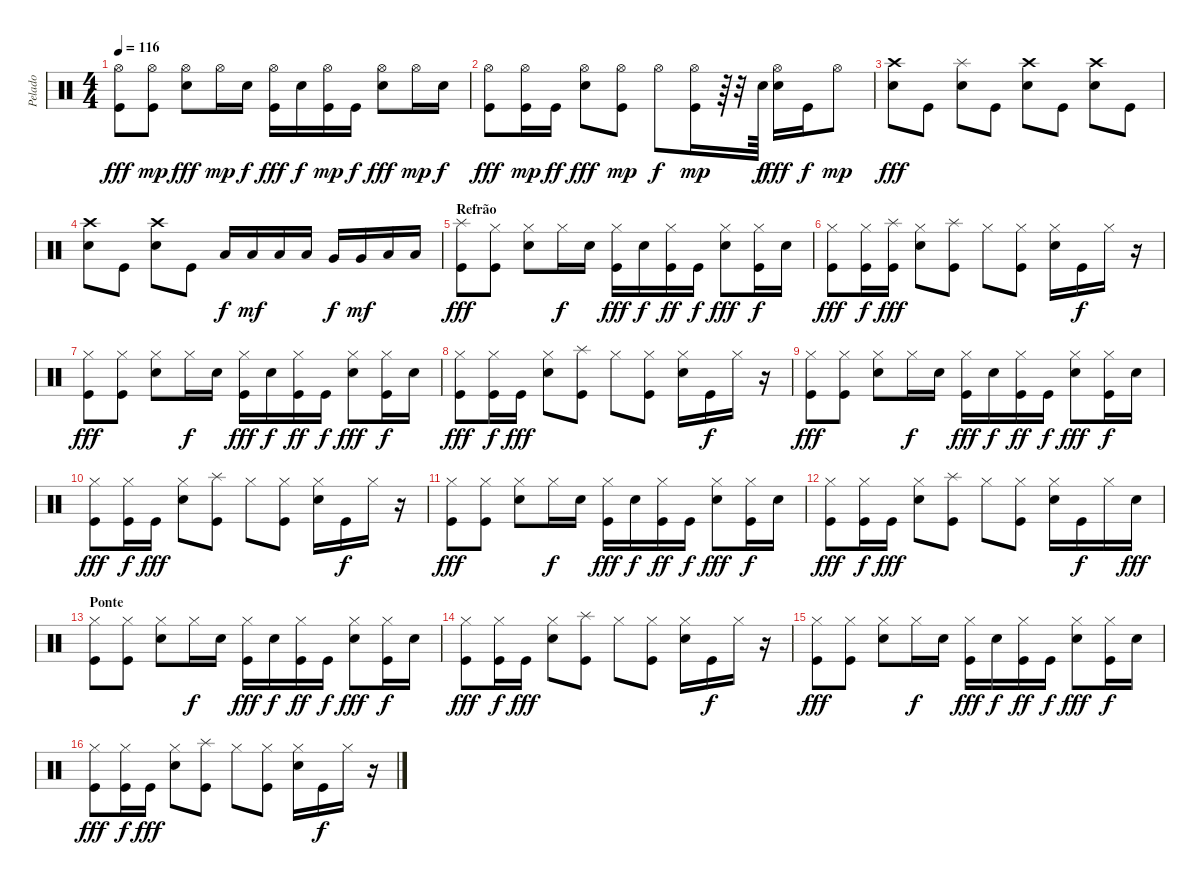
\track ("Pelado" "Pelado") {instrument percussion}
\staff {score}
\articulation defaults
\ts (4 4)
\tempo 116
\clef neutral
\ks c
("Kick (hit)" "Hi-Hat (open)").8{dy fff} ("Kick (hit)" "Hi-Hat (open)").8{dy mp} ("Electric Snare (hit)" "Hi-Hat (open)").8{dy fff} "Hi-Hat (open)".16{dy mp} "Electric Snare (hit)".16{dy f} ("Kick (hit)" "Hi-Hat (open)").16{dy fff} "Electric Snare (hit)".16{dy f} ("Kick (hit)" "Hi-Hat (open)").16{dy mp} "Kick (hit)".16{dy f} ("Electric Snare (hit)" "Hi-Hat (open)").8{dy fff} "Hi-Hat (open)".16{dy mp} "Electric Snare (hit)".16{dy f} |
("Kick (hit)" "Hi-Hat (open)").8{dy fff} ("Kick (hit)" "Hi-Hat (open)").16{dy mp} "Kick (hit)".16{dy ff} ("Electric Snare (hit)" "Hi-Hat (open)").8{dy fff} ("Kick (hit)" "Hi-Hat (open)").8{dy mp} "Hi-Hat (open)".8{dy f} ("Kick (hit)" "Hi-Hat (open)").16{dy mp} r.64 r.32 "Electric Snare (hit)".64{dy f} ("Electric Snare (hit)" "Hi-Hat (open)").16{dy fff} "Kick (hit)".16{dy f} "Hi-Hat (open)".8{dy mp} |
("Electric Snare (hit)" "Crash high (hit)").8{dy fff} "Kick (hit)".8 ("Electric Snare (hit)" "Splash (hit)").8 "Kick (hit)".8 ("Electric Snare (hit)" "Crash high (hit)").8 "Kick (hit)".8 ("Electric Snare (hit)" "Crash high (hit)").8 "Kick (hit)".8 |
("Electric Snare (hit)" "Crash high (hit)").8 "Kick (hit)".8 ("Electric Snare (hit)" "Crash high (hit)").8 "Kick (hit)".8 "Low Tom (hit)".16{dy f} "Low Tom (hit)".16{dy mf} "Low Tom (hit)".16 "Low Tom (hit)".16 "Very Low Tom (hit)".16{dy f} "Very Low Tom (hit)".16{dy mf} "Low Floor Tom (hit)".16 "Low Floor Tom (hit)".16 |
\section ("" "Refrão")
("Kick (hit)" "Splash (hit)").8{dy fff} ("Kick (hit)" "Hi-Hat (closed)").8 ("Electric Snare (hit)" "Hi-Hat (closed)").8 "Hi-Hat (closed)".16{dy f} "Electric Snare (hit)".16 ("Kick (hit)" "Hi-Hat (closed)").16{dy fff} "Electric Snare (hit)".16{dy f} ("Kick (hit)" "Hi-Hat (closed)").16{dy ff} "Kick (hit)".16{dy f} ("Electric Snare (hit)" "Hi-Hat (closed)").8{dy fff} ("Kick (hit)" "Hi-Hat (closed)").16{dy f} "Electric Snare (hit)".16 |
("Kick (hit)" "Hi-Hat (closed)").8{dy fff} ("Kick (hit)" "Hi-Hat (closed)").16{dy f} ("Kick (hit)" "Splash (hit)").16{dy fff} ("Electric Snare (hit)" "Hi-Hat (closed)").8 ("Kick (hit)" "Splash (hit)").8 "Hi-Hat (closed)".8 ("Kick (hit)" "Hi-Hat (closed)").8 ("Electric Snare (hit)" "Hi-Hat (closed)").16 "Kick (hit)".16{dy f} "Hi-Hat (closed)".16 r.16 |
("Kick (hit)" "Hi-Hat (closed)").8{dy fff} ("Kick (hit)" "Hi-Hat (closed)").8 ("Electric Snare (hit)" "Hi-Hat (closed)").8 "Hi-Hat (closed)".16{dy f} "Electric Snare (hit)".16 ("Kick (hit)" "Hi-Hat (closed)").16{dy fff} "Electric Snare (hit)".16{dy f} ("Kick (hit)" "Hi-Hat (closed)").16{dy ff} "Kick (hit)".16{dy f} ("Electric Snare (hit)" "Hi-Hat (closed)").8{dy fff} ("Kick (hit)" "Hi-Hat (closed)").16{dy f} "Electric Snare (hit)".16 |
("Kick (hit)" "Hi-Hat (closed)").8{dy fff} ("Kick (hit)" "Hi-Hat (closed)").16{dy f} "Kick (hit)".16{dy fff} ("Electric Snare (hit)" "Hi-Hat (closed)").8 ("Kick (hit)" "Splash (hit)").8 "Hi-Hat (closed)".8 ("Kick (hit)" "Hi-Hat (closed)").8 ("Electric Snare (hit)" "Hi-Hat (closed)").16 "Kick (hit)".16{dy f} "Hi-Hat (closed)".16 r.16 |
("Kick (hit)" "Hi-Hat (closed)").8{dy fff} ("Kick (hit)" "Hi-Hat (closed)").8 ("Electric Snare (hit)" "Hi-Hat (closed)").8 "Hi-Hat (closed)".16{dy f} "Electric Snare (hit)".16 ("Kick (hit)" "Hi-Hat (closed)").16{dy fff} "Electric Snare (hit)".16{dy f} ("Kick (hit)" "Hi-Hat (closed)").16{dy ff} "Kick (hit)".16{dy f} ("Electric Snare (hit)" "Hi-Hat (closed)").8{dy fff} ("Kick (hit)" "Hi-Hat (closed)").16{dy f} "Electric Snare (hit)".16 |
("Kick (hit)" "Hi-Hat (closed)").8{dy fff} ("Kick (hit)" "Hi-Hat (closed)").16{dy f} "Kick (hit)".16{dy fff} ("Electric Snare (hit)" "Hi-Hat (closed)").8 ("Kick (hit)" "Splash (hit)").8 "Hi-Hat (closed)".8 ("Kick (hit)" "Hi-Hat (closed)").8 ("Electric Snare (hit)" "Hi-Hat (closed)").16 "Kick (hit)".16{dy f} "Hi-Hat (closed)".16 r.16 |
("Kick (hit)" "Hi-Hat (closed)").8{dy fff} ("Kick (hit)" "Hi-Hat (closed)").8 ("Electric Snare (hit)" "Hi-Hat (closed)").8 "Hi-Hat (closed)".16{dy f} "Electric Snare (hit)".16 ("Kick (hit)" "Hi-Hat (closed)").16{dy fff} "Electric Snare (hit)".16{dy f} ("Kick (hit)" "Hi-Hat (closed)").16{dy ff} "Kick (hit)".16{dy f} ("Electric Snare (hit)" "Hi-Hat (closed)").8{dy fff} ("Kick (hit)" "Hi-Hat (closed)").16{dy f} "Electric Snare (hit)".16 |
("Kick (hit)" "Hi-Hat (closed)").8{dy fff} ("Kick (hit)" "Hi-Hat (closed)").16{dy f} "Kick (hit)".16{dy fff} ("Electric Snare (hit)" "Hi-Hat (closed)").8 ("Kick (hit)" "Splash (hit)").8 "Hi-Hat (closed)".8 ("Kick (hit)" "Hi-Hat (closed)").8 ("Electric Snare (hit)" "Hi-Hat (closed)").16 "Kick (hit)".16{dy f} "Hi-Hat (closed)".16 "Electric Snare (hit)".16{dy fff} |
\section ("" "Ponte")
("Kick (hit)" "Hi-Hat (closed)").8 ("Kick (hit)" "Hi-Hat (closed)").8 ("Electric Snare (hit)" "Hi-Hat (closed)").8 "Hi-Hat (closed)".16{dy f} "Electric Snare (hit)".16 ("Kick (hit)" "Hi-Hat (closed)").16{dy fff} "Electric Snare (hit)".16{dy f} ("Kick (hit)" "Hi-Hat (closed)").16{dy ff} "Kick (hit)".16{dy f} ("Electric Snare (hit)" "Hi-Hat (closed)").8{dy fff} ("Kick (hit)" "Hi-Hat (closed)").16{dy f} "Electric Snare (hit)".16 |
("Kick (hit)" "Hi-Hat (closed)").8{dy fff} ("Kick (hit)" "Hi-Hat (closed)").16{dy f} "Kick (hit)".16{dy fff} ("Electric Snare (hit)" "Hi-Hat (closed)").8 ("Kick (hit)" "Splash (hit)").8 "Hi-Hat (closed)".8 ("Kick (hit)" "Hi-Hat (closed)").8 ("Electric Snare (hit)" "Hi-Hat (closed)").16 "Kick (hit)".16{dy f} "Hi-Hat (closed)".16 r.16 |
("Kick (hit)" "Hi-Hat (closed)").8{dy fff} ("Kick (hit)" "Hi-Hat (closed)").8 ("Electric Snare (hit)" "Hi-Hat (closed)").8 "Hi-Hat (closed)".16{dy f} "Electric Snare (hit)".16 ("Kick (hit)" "Hi-Hat (closed)").16{dy fff} "Electric Snare (hit)".16{dy f} ("Kick (hit)" "Hi-Hat (closed)").16{dy ff} "Kick (hit)".16{dy f} ("Electric Snare (hit)" "Hi-Hat (closed)").8{dy fff} ("Kick (hit)" "Hi-Hat (closed)").16{dy f} "Electric Snare (hit)".16 |
("Kick (hit)" "Hi-Hat (closed)").8{dy fff} ("Kick (hit)" "Hi-Hat (closed)").16{dy f} "Kick (hit)".16{dy fff} ("Electric Snare (hit)" "Hi-Hat (closed)").8 ("Kick (hit)" "Splash (hit)").8 "Hi-Hat (closed)".8 ("Kick (hit)" "Hi-Hat (closed)").8 ("Electric Snare (hit)" "Hi-Hat (closed)").16 "Kick (hit)".16{dy f} "Hi-Hat (closed)".16 r.16
